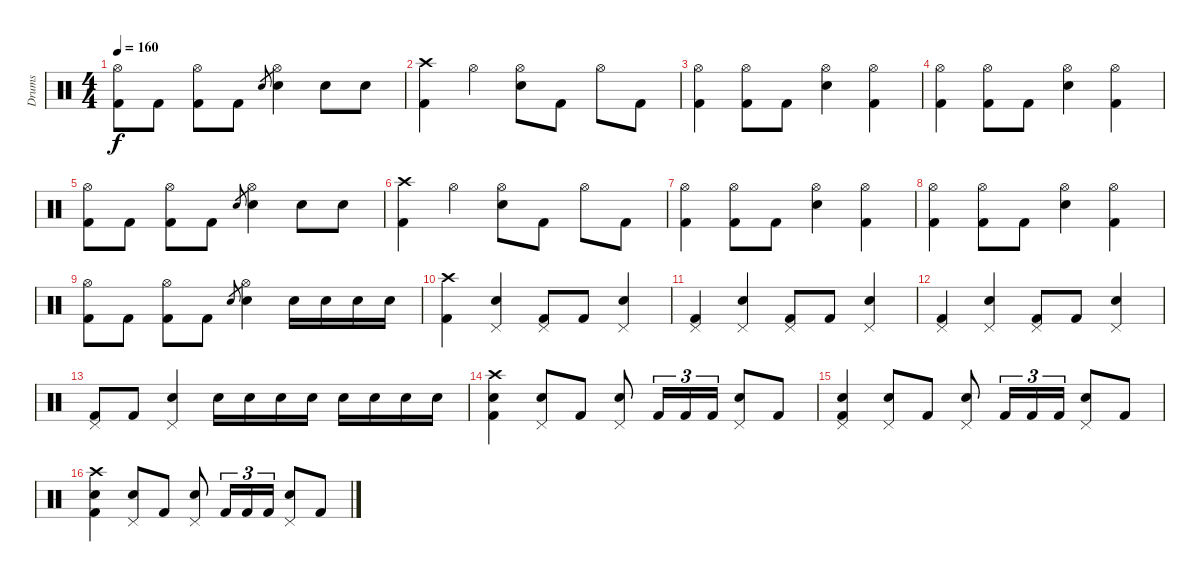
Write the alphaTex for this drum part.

\track ("Drums" "Drums") {instrument percussion}
\staff {score}
\articulation defaults
\ts (4 4)
\tempo 160
\clef neutral
\ks c
("Hi-Hat (open)" "Kick (hit) 2").8{dy f} "Kick (hit) 2".8 ("Hi-Hat (open)" "Kick (hit) 2").8 "Kick (hit) 2".8 "Snare (hit) 2".8{gr} ("Hi-Hat (open)" "Snare (hit) 2").4 "Snare (hit) 2".8 "Snare (hit) 2".8 |
("Crash high (hit)" "Kick (hit) 2").4 "Hi-Hat (open)".4 ("Hi-Hat (open)" "Snare (hit) 2").8 "Kick (hit) 2".8 "Hi-Hat (open)".8 "Kick (hit) 2".8 |
("Hi-Hat (open)" "Kick (hit) 2").4 ("Hi-Hat (open)" "Kick (hit) 2").8 "Kick (hit) 2".8 ("Hi-Hat (open)" "Snare (hit) 2").4 ("Hi-Hat (open)" "Kick (hit) 2").4 |
("Hi-Hat (open)" "Kick (hit) 2").4 ("Hi-Hat (open)" "Kick (hit) 2").8 "Kick (hit) 2".8 ("Hi-Hat (open)" "Snare (hit) 2").4 ("Hi-Hat (open)" "Kick (hit) 2").4 |
("Hi-Hat (open)" "Kick (hit) 2").8 "Kick (hit) 2".8 ("Hi-Hat (open)" "Kick (hit) 2").8 "Kick (hit) 2".8 "Snare (hit) 2".8{gr} ("Hi-Hat (open)" "Snare (hit) 2").4 "Snare (hit) 2".8 "Snare (hit) 2".8 |
("Crash high (hit)" "Kick (hit) 2").4 "Hi-Hat (open)".4 ("Hi-Hat (open)" "Snare (hit) 2").8 "Kick (hit) 2".8 "Hi-Hat (open)".8 "Kick (hit) 2".8 |
("Hi-Hat (open)" "Kick (hit) 2").4 ("Hi-Hat (open)" "Kick (hit) 2").8 "Kick (hit) 2".8 ("Hi-Hat (open)" "Snare (hit) 2").4 ("Hi-Hat (open)" "Kick (hit) 2").4 |
("Hi-Hat (open)" "Kick (hit) 2").4 ("Hi-Hat (open)" "Kick (hit) 2").8 "Kick (hit) 2".8 ("Hi-Hat (open)" "Snare (hit) 2").4 ("Hi-Hat (open)" "Kick (hit) 2").4 |
("Hi-Hat (open)" "Kick (hit) 2").8 "Kick (hit) 2".8 ("Hi-Hat (open)" "Kick (hit) 2").8 "Kick (hit) 2".8 "Snare (hit) 2".8{gr} ("Hi-Hat (open)" "Snare (hit) 2").4 "Snare (hit) 2".16 "Snare (hit) 2".16 "Snare (hit) 2".16 "Snare (hit) 2".16 |
("Crash high (hit)" "Kick (hit) 2").4 ("Pedal Hi-Hat (hit)" "Snare (hit) 2").4 ("Pedal Hi-Hat (hit)" "Kick (hit) 2").8 "Kick (hit) 2".8 ("Pedal Hi-Hat (hit)" "Snare (hit) 2").4 |
("Pedal Hi-Hat (hit)" "Kick (hit) 2").4 ("Pedal Hi-Hat (hit)" "Snare (hit) 2").4 ("Pedal Hi-Hat (hit)" "Kick (hit) 2").8 "Kick (hit) 2".8 ("Pedal Hi-Hat (hit)" "Snare (hit) 2").4 |
("Pedal Hi-Hat (hit)" "Kick (hit) 2").4 ("Pedal Hi-Hat (hit)" "Snare (hit) 2").4 ("Pedal Hi-Hat (hit)" "Kick (hit) 2").8 "Kick (hit) 2".8 ("Pedal Hi-Hat (hit)" "Snare (hit) 2").4 |
("Pedal Hi-Hat (hit)" "Kick (hit) 2").8 "Kick (hit) 2".8 ("Pedal Hi-Hat (hit)" "Snare (hit) 2").4 "Snare (hit) 2".16 "Snare (hit) 2".16 "Snare (hit) 2".16 "Snare (hit) 2".16 "Snare (hit) 2".16 "Snare (hit) 2".16 "Snare (hit) 2".16 "Snare (hit) 2".16 |
("Crash high (hit)" "Snare (hit) 2" "Kick (hit) 2").4 ("Pedal Hi-Hat (hit)" "Snare (hit) 2").8 "Kick (hit) 2".8 ("Pedal Hi-Hat (hit)" "Snare (hit) 2").8 "Kick (hit) 2".16{tu (3 2)} "Kick (hit) 2".16{tu (3 2)} "Kick (hit) 2".16{tu (3 2)} ("Pedal Hi-Hat (hit)" "Snare (hit) 2").8 "Kick (hit) 2".8 |
("Pedal Hi-Hat (hit)" "Snare (hit) 2" "Kick (hit) 2").4 ("Pedal Hi-Hat (hit)" "Snare (hit) 2").8 "Kick (hit) 2".8 ("Pedal Hi-Hat (hit)" "Snare (hit) 2").8 "Kick (hit) 2".16{tu (3 2)} "Kick (hit) 2".16{tu (3 2)} "Kick (hit) 2".16{tu (3 2)} ("Pedal Hi-Hat (hit)" "Snare (hit) 2").8 "Kick (hit) 2".8 |
("Crash high (hit)" "Snare (hit) 2" "Kick (hit) 2").4 ("Pedal Hi-Hat (hit)" "Snare (hit) 2").8 "Kick (hit) 2".8 ("Pedal Hi-Hat (hit)" "Snare (hit) 2").8 "Kick (hit) 2".16{tu (3 2)} "Kick (hit) 2".16{tu (3 2)} "Kick (hit) 2".16{tu (3 2)} ("Pedal Hi-Hat (hit)" "Snare (hit) 2").8 "Kick (hit) 2".8
